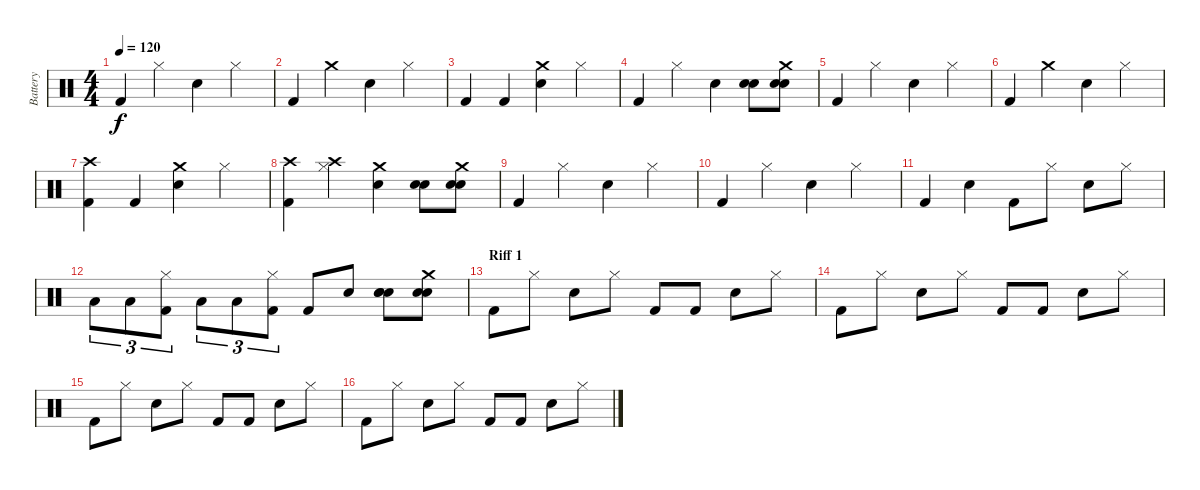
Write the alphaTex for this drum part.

\track ("Battery" "Battery") {instrument percussion}
\staff {score}
\articulation defaults
\ts (4 4)
\tempo 120
\clef neutral
\ks c "Kick (hit) 2".4{dy f} "Hi-Hat (closed)".4 "Snare (hit) 2".4 "Hi-Hat (closed)".4
|
"Kick (hit) 2".4 "Crash medium (hit)".4 "Snare (hit) 2".4 "Hi-Hat (closed)".4 |
"Kick (hit) 2".4 "Kick (hit) 2".4 ("Snare (hit) 2" "Crash medium (hit)").4 "Hi-Hat (closed)".4 |
"Kick (hit) 2".4 "Hi-Hat (closed)".4 "Snare (hit) 2".4 ("Snare (hit) 2" "Snare (hit) 2").8 ("Snare (hit) 2" "Snare (hit) 2" "Crash medium (hit)").8 |
"Kick (hit) 2".4 "Hi-Hat (closed)".4 "Snare (hit) 2".4 "Hi-Hat (closed)".4 |
"Kick (hit) 2".4 "Crash medium (hit)".4 "Snare (hit) 2".4 "Hi-Hat (closed)".4 |
("Kick (hit) 2" "Crash high (hit)").4 "Kick (hit) 2".4 ("Snare (hit) 2" "Crash medium (hit)").4 "Hi-Hat (closed)".4 |
("Kick (hit) 2" "Crash high (hit)").4 ("Hi-Hat (closed)" "Crash high (hit)").4 ("Snare (hit) 2" "Crash medium (hit)").4 ("Snare (hit) 2" "Snare (hit) 2").8 ("Snare (hit) 2" "Snare (hit) 2" "Crash medium (hit)").8 |
"Kick (hit) 2".4 "Hi-Hat (closed)".4 "Snare (hit) 2".4 "Hi-Hat (closed)".4 |
"Kick (hit) 2".4 "Hi-Hat (closed)".4 "Snare (hit) 2".4 "Hi-Hat (closed)".4 |
"Kick (hit) 2".4 "Snare (hit) 2".4 "Kick (hit) 2".8 "Hi-Hat (closed)".8 "Snare (hit) 2".8 "Hi-Hat (closed)".8 |
"Low Tom (hit)".8{tu (3 2)} "Low Floor Tom (hit)".8{tu (3 2)} ("Kick (hit) 2" "Hi-Hat (closed)").8{tu (3 2)} "Low Tom (hit)".8{tu (3 2)} "Low Floor Tom (hit)".8{tu (3 2)} ("Kick (hit) 2" "Hi-Hat (closed)").8{tu (3 2)} "Kick (hit) 2".8 "Snare (hit) 2".8 ("Snare (hit) 2" "Snare (hit) 2" "Snare (hit) 2").8 ("Snare (hit) 2" "Snare (hit) 2" "Crash medium (hit)").8 |
\section ("" "Riff 1")
"Kick (hit) 2".8 "Hi-Hat (closed)".8 "Snare (hit) 2".8 "Hi-Hat (closed)".8 "Kick (hit) 2".8 "Kick (hit) 2".8 "Snare (hit) 2".8 "Hi-Hat (closed)".8 |
"Kick (hit) 2".8 "Hi-Hat (closed)".8 "Snare (hit) 2".8 "Hi-Hat (closed)".8 "Kick (hit) 2".8 "Kick (hit) 2".8 "Snare (hit) 2".8 "Hi-Hat (closed)".8 |
"Kick (hit) 2".8 "Hi-Hat (closed)".8 "Snare (hit) 2".8 "Hi-Hat (closed)".8 "Kick (hit) 2".8 "Kick (hit) 2".8 "Snare (hit) 2".8 "Hi-Hat (closed)".8 |
"Kick (hit) 2".8 "Hi-Hat (closed)".8 "Snare (hit) 2".8 "Hi-Hat (closed)".8 "Kick (hit) 2".8 "Kick (hit) 2".8 "Snare (hit) 2".8 "Hi-Hat (closed)".8
